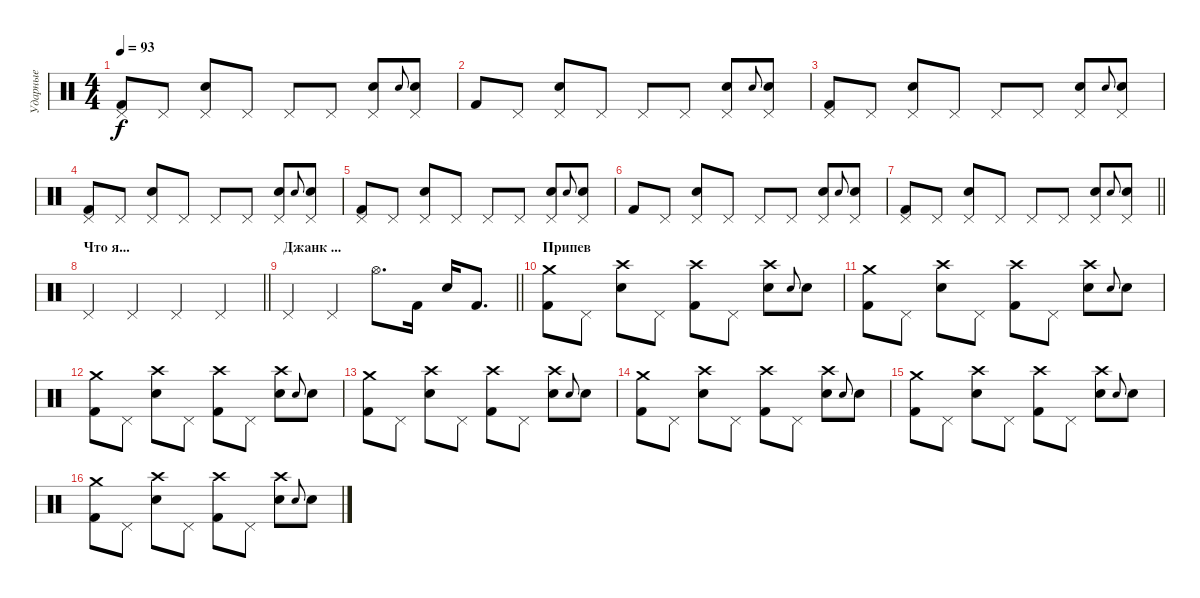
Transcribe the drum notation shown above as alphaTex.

\track ("Ударные" "Ударные") {instrument percussion}
\staff {score}
\articulation defaults
\ts (4 4)
\tempo 93
\clef neutral
\ks c
("Kick (hit) 2" "Pedal Hi-Hat (hit)").8{dy f} "Pedal Hi-Hat (hit)".8 ("Pedal Hi-Hat (hit)" "Electric Snare (hit)").8 "Pedal Hi-Hat (hit)".8 "Pedal Hi-Hat (hit)".8 "Pedal Hi-Hat (hit)".8 ("Electric Snare (hit)" "Pedal Hi-Hat (hit)").8 "Electric Snare (hit)".8{gr onbeat} ("Pedal Hi-Hat (hit)" "Electric Snare (hit)").8 |
"Kick (hit) 2".8 "Pedal Hi-Hat (hit)".8 ("Pedal Hi-Hat (hit)" "Electric Snare (hit)").8 "Pedal Hi-Hat (hit)".8 "Pedal Hi-Hat (hit)".8 "Pedal Hi-Hat (hit)".8 ("Electric Snare (hit)" "Pedal Hi-Hat (hit)").8 "Electric Snare (hit)".8{gr onbeat} ("Pedal Hi-Hat (hit)" "Electric Snare (hit)").8 |
("Kick (hit) 2" "Pedal Hi-Hat (hit)").8 "Pedal Hi-Hat (hit)".8 ("Pedal Hi-Hat (hit)" "Electric Snare (hit)").8 "Pedal Hi-Hat (hit)".8 "Pedal Hi-Hat (hit)".8 "Pedal Hi-Hat (hit)".8 ("Electric Snare (hit)" "Pedal Hi-Hat (hit)").8 "Electric Snare (hit)".8{gr onbeat} ("Pedal Hi-Hat (hit)" "Electric Snare (hit)").8 |
("Kick (hit) 2" "Pedal Hi-Hat (hit)").8 "Pedal Hi-Hat (hit)".8 ("Pedal Hi-Hat (hit)" "Electric Snare (hit)").8 "Pedal Hi-Hat (hit)".8 "Pedal Hi-Hat (hit)".8 "Pedal Hi-Hat (hit)".8 ("Electric Snare (hit)" "Pedal Hi-Hat (hit)").8 "Electric Snare (hit)".8{gr onbeat} ("Pedal Hi-Hat (hit)" "Electric Snare (hit)").8 |
("Kick (hit) 2" "Pedal Hi-Hat (hit)").8 "Pedal Hi-Hat (hit)".8 ("Pedal Hi-Hat (hit)" "Electric Snare (hit)").8 "Pedal Hi-Hat (hit)".8 "Pedal Hi-Hat (hit)".8 "Pedal Hi-Hat (hit)".8 ("Electric Snare (hit)" "Pedal Hi-Hat (hit)").8 "Electric Snare (hit)".8{gr onbeat} ("Pedal Hi-Hat (hit)" "Electric Snare (hit)").8 |
"Kick (hit) 2".8 "Pedal Hi-Hat (hit)".8 ("Pedal Hi-Hat (hit)" "Electric Snare (hit)").8 "Pedal Hi-Hat (hit)".8 "Pedal Hi-Hat (hit)".8 "Pedal Hi-Hat (hit)".8 ("Electric Snare (hit)" "Pedal Hi-Hat (hit)").8 "Electric Snare (hit)".8{gr onbeat} ("Pedal Hi-Hat (hit)" "Electric Snare (hit)").8 |
\barLineRight lightlight
("Kick (hit) 2" "Pedal Hi-Hat (hit)").8 "Pedal Hi-Hat (hit)".8 ("Pedal Hi-Hat (hit)" "Electric Snare (hit)").8 "Pedal Hi-Hat (hit)".8 "Pedal Hi-Hat (hit)".8 "Pedal Hi-Hat (hit)".8 ("Electric Snare (hit)" "Pedal Hi-Hat (hit)").8 "Electric Snare (hit)".8{gr onbeat} ("Pedal Hi-Hat (hit)" "Electric Snare (hit)").8 |
\section ("" "Что я...")
\barLineRight lightlight "Pedal Hi-Hat (hit)".4 "Pedal Hi-Hat (hit)".4 "Pedal Hi-Hat (hit)".4 "Pedal Hi-Hat (hit)".4
|
\section ("" "Джанк ...")
\barLineRight lightlight "Pedal Hi-Hat (hit)".4 "Pedal Hi-Hat (hit)".4 "Hi-Hat (open)".8{d} "Kick (hit) 2".16 "Electric Snare (hit)".16 "Kick (hit) 2".8{d}
|
\section ("" "Припев")
("Crash medium (hit)" "Kick (hit) 2").8 "Pedal Hi-Hat (hit)".8 ("Crash high (hit)" "Electric Snare (hit)").8 "Pedal Hi-Hat (hit)".8 ("Kick (hit) 2" "Crash high (hit)").8 "Pedal Hi-Hat (hit)".8 ("Electric Snare (hit)" "Crash high (hit)").8 "Electric Snare (hit)".8{gr onbeat} "Electric Snare (hit)".8 |
("Crash medium (hit)" "Kick (hit) 2").8 "Pedal Hi-Hat (hit)".8 ("Crash high (hit)" "Electric Snare (hit)").8 "Pedal Hi-Hat (hit)".8 ("Kick (hit) 2" "Crash high (hit)").8 "Pedal Hi-Hat (hit)".8 ("Electric Snare (hit)" "Crash high (hit)").8 "Electric Snare (hit)".8{gr onbeat} "Electric Snare (hit)".8 |
("Crash medium (hit)" "Kick (hit) 2").8 "Pedal Hi-Hat (hit)".8 ("Crash high (hit)" "Electric Snare (hit)").8 "Pedal Hi-Hat (hit)".8 ("Kick (hit) 2" "Crash high (hit)").8 "Pedal Hi-Hat (hit)".8 ("Electric Snare (hit)" "Crash high (hit)").8 "Electric Snare (hit)".8{gr onbeat} "Electric Snare (hit)".8 |
("Crash medium (hit)" "Kick (hit) 2").8 "Pedal Hi-Hat (hit)".8 ("Crash high (hit)" "Electric Snare (hit)").8 "Pedal Hi-Hat (hit)".8 ("Kick (hit) 2" "Crash high (hit)").8 "Pedal Hi-Hat (hit)".8 ("Electric Snare (hit)" "Crash high (hit)").8 "Electric Snare (hit)".8{gr onbeat} "Electric Snare (hit)".8 |
("Crash medium (hit)" "Kick (hit) 2").8 "Pedal Hi-Hat (hit)".8 ("Crash high (hit)" "Electric Snare (hit)").8 "Pedal Hi-Hat (hit)".8 ("Kick (hit) 2" "Crash high (hit)").8 "Pedal Hi-Hat (hit)".8 ("Electric Snare (hit)" "Crash high (hit)").8 "Electric Snare (hit)".8{gr onbeat} "Electric Snare (hit)".8 |
("Crash medium (hit)" "Kick (hit) 2").8 "Pedal Hi-Hat (hit)".8 ("Crash high (hit)" "Electric Snare (hit)").8 "Pedal Hi-Hat (hit)".8 ("Kick (hit) 2" "Crash high (hit)").8 "Pedal Hi-Hat (hit)".8 ("Electric Snare (hit)" "Crash high (hit)").8 "Electric Snare (hit)".8{gr onbeat} "Electric Snare (hit)".8 |
("Crash medium (hit)" "Kick (hit) 2").8 "Pedal Hi-Hat (hit)".8 ("Crash high (hit)" "Electric Snare (hit)").8 "Pedal Hi-Hat (hit)".8 ("Kick (hit) 2" "Crash high (hit)").8 "Pedal Hi-Hat (hit)".8 ("Electric Snare (hit)" "Crash high (hit)").8 "Electric Snare (hit)".8{gr onbeat} "Electric Snare (hit)".8
